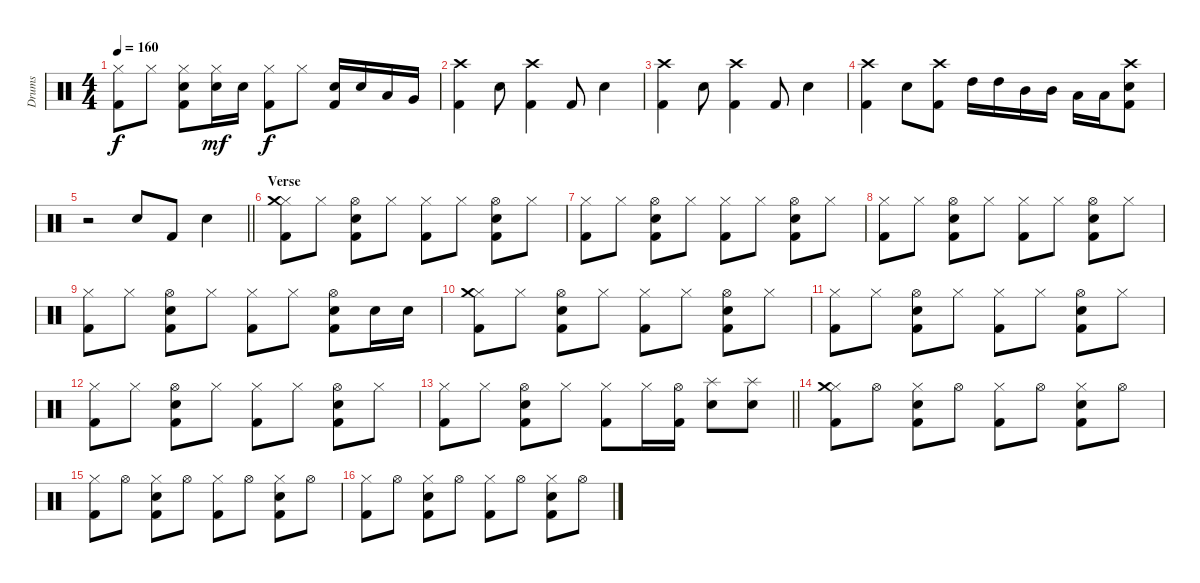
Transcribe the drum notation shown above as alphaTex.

\track ("Drums" "Drums") {instrument percussion}
\staff {score}
\articulation defaults
\ts (4 4)
\tempo 160
\clef neutral
\ks c
("Hi-Hat (closed)" "Kick (hit) 2").8{dy f} "Hi-Hat (closed)".8 ("Hi-Hat (closed)" "Snare (hit) 2" "Kick (hit) 2").8 ("Hi-Hat (closed)" "Snare (hit) 2").16{dy mf} "Snare (hit) 2".16 ("Hi-Hat (closed)" "Kick (hit) 2").8{dy f} "Hi-Hat (closed)".8 ("Snare (hit) 2" "Kick (hit) 2").16 "Snare (hit) 2".16 "Low Tom (hit)".16 "Very Low Tom (hit)".16 |
("Crash high (hit)" "Kick (hit) 2").4 "Snare (hit) 2".8 ("Crash high (hit)" "Kick (hit) 2").4 "Kick (hit) 2".8 "Snare (hit) 2".4 |
("Crash high (hit)" "Kick (hit) 2").4 "Snare (hit) 2".8 ("Crash high (hit)" "Kick (hit) 2").4 "Kick (hit) 2".8 "Snare (hit) 2".4 |
("Crash high (hit)" "Kick (hit) 2").4 "Snare (hit) 2".8 ("Crash high (hit)" "Kick (hit) 2").8 "High Tom (hit)".16 "High Tom (hit)".16 "Mid Tom (hit)".16 "Mid Tom (hit)".16 "Low Tom (hit)".16 "Low Tom (hit)".16 ("Crash high (hit)" "Snare (hit) 2" "Kick (hit) 2").8 |
\barLineRight lightlight
r.2 "Snare (hit) 2".8 "Kick (hit) 2".8 "Snare (hit) 2".4 |
\section ("" "Verse")
("Hi-Hat (closed)" "Crash medium (hit)" "Kick (hit) 2").8 "Hi-Hat (closed)".8 ("Hi-Hat (open)" "Snare (hit) 2" "Kick (hit) 2").8 "Hi-Hat (closed)".8 ("Hi-Hat (closed)" "Kick (hit) 2").8 "Hi-Hat (closed)".8 ("Hi-Hat (open)" "Snare (hit) 2" "Kick (hit) 2").8 "Hi-Hat (closed)".8 |
("Hi-Hat (closed)" "Kick (hit) 2").8 "Hi-Hat (closed)".8 ("Hi-Hat (open)" "Snare (hit) 2" "Kick (hit) 2").8 "Hi-Hat (closed)".8 ("Hi-Hat (closed)" "Kick (hit) 2").8 "Hi-Hat (closed)".8 ("Hi-Hat (open)" "Snare (hit) 2" "Kick (hit) 2").8 "Hi-Hat (closed)".8 |
("Hi-Hat (closed)" "Kick (hit) 2").8 "Hi-Hat (closed)".8 ("Hi-Hat (open)" "Snare (hit) 2" "Kick (hit) 2").8 "Hi-Hat (closed)".8 ("Hi-Hat (closed)" "Kick (hit) 2").8 "Hi-Hat (closed)".8 ("Hi-Hat (open)" "Snare (hit) 2" "Kick (hit) 2").8 "Hi-Hat (closed)".8 |
("Hi-Hat (closed)" "Kick (hit) 2").8 "Hi-Hat (closed)".8 ("Hi-Hat (open)" "Snare (hit) 2" "Kick (hit) 2").8 "Hi-Hat (closed)".8 ("Hi-Hat (closed)" "Kick (hit) 2").8 "Hi-Hat (closed)".8 ("Hi-Hat (open)" "Snare (hit) 2" "Kick (hit) 2").8 "Snare (hit) 2".16 "Snare (hit) 2".16 |
("Hi-Hat (closed)" "Crash medium (hit)" "Kick (hit) 2").8 "Hi-Hat (closed)".8 ("Hi-Hat (open)" "Snare (hit) 2" "Kick (hit) 2").8 "Hi-Hat (closed)".8 ("Hi-Hat (closed)" "Kick (hit) 2").8 "Hi-Hat (closed)".8 ("Hi-Hat (open)" "Snare (hit) 2" "Kick (hit) 2").8 "Hi-Hat (closed)".8 |
("Hi-Hat (closed)" "Kick (hit) 2").8 "Hi-Hat (closed)".8 ("Hi-Hat (open)" "Snare (hit) 2" "Kick (hit) 2").8 "Hi-Hat (closed)".8 ("Hi-Hat (closed)" "Kick (hit) 2").8 "Hi-Hat (closed)".8 ("Hi-Hat (open)" "Snare (hit) 2" "Kick (hit) 2").8 "Hi-Hat (closed)".8 |
("Hi-Hat (closed)" "Kick (hit) 2").8 "Hi-Hat (closed)".8 ("Hi-Hat (open)" "Snare (hit) 2" "Kick (hit) 2").8 "Hi-Hat (closed)".8 ("Hi-Hat (closed)" "Kick (hit) 2").8 "Hi-Hat (closed)".8 ("Hi-Hat (open)" "Snare (hit) 2" "Kick (hit) 2").8 "Hi-Hat (closed)".8 |
\barLineRight lightlight
("Hi-Hat (closed)" "Kick (hit) 2").8 "Hi-Hat (closed)".8 ("Hi-Hat (open)" "Snare (hit) 2" "Kick (hit) 2").8 "Hi-Hat (closed)".8 ("Hi-Hat (closed)" "Kick (hit) 2").8 "Hi-Hat (closed)".16 ("Hi-Hat (open)" "Kick (hit) 2").16 ("Splash (hit)" "Snare (hit) 2").8 ("Splash (hit)" "Snare (hit) 2").8 |
("Hi-Hat (closed)" "Crash medium (hit)" "Kick (hit) 2").8 "Hi-Hat (open)".8 ("Hi-Hat (closed)" "Snare (hit) 2" "Kick (hit) 2").8 "Hi-Hat (open)".8 ("Hi-Hat (closed)" "Kick (hit) 2").8 "Hi-Hat (open)".8 ("Hi-Hat (closed)" "Snare (hit) 2" "Kick (hit) 2").8 "Hi-Hat (open)".8 |
("Hi-Hat (closed)" "Kick (hit) 2").8 "Hi-Hat (open)".8 ("Hi-Hat (closed)" "Snare (hit) 2" "Kick (hit) 2").8 "Hi-Hat (open)".8 ("Hi-Hat (closed)" "Kick (hit) 2").8 "Hi-Hat (open)".8 ("Hi-Hat (closed)" "Snare (hit) 2" "Kick (hit) 2").8 "Hi-Hat (open)".8 |
("Hi-Hat (closed)" "Kick (hit) 2").8 "Hi-Hat (open)".8 ("Hi-Hat (closed)" "Snare (hit) 2" "Kick (hit) 2").8 "Hi-Hat (open)".8 ("Hi-Hat (closed)" "Kick (hit) 2").8 "Hi-Hat (open)".8 ("Hi-Hat (closed)" "Snare (hit) 2" "Kick (hit) 2").8 "Hi-Hat (open)".8
